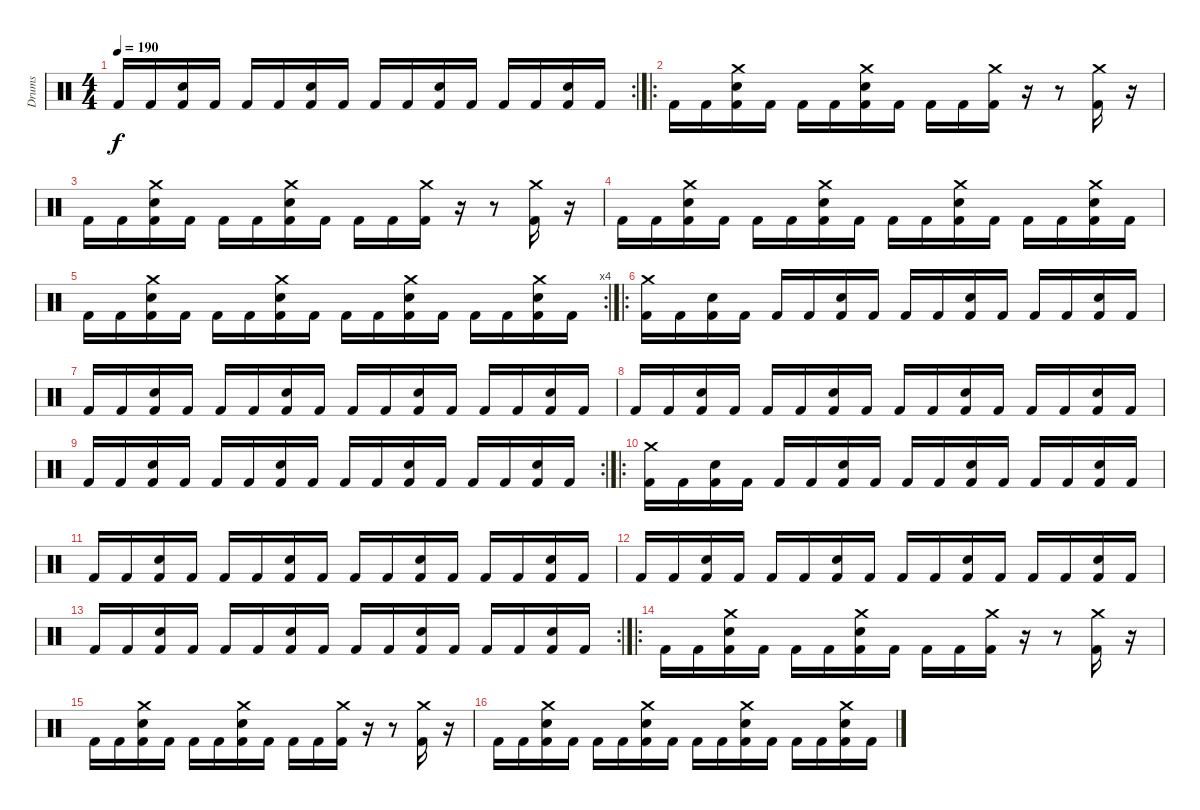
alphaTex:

\track ("Drums" "Drums") {instrument percussion}
\staff {score}
\articulation defaults
\rc 2
\ts (4 4)
\tempo 190
\clef neutral
\ks c "Kick (hit) 2".16{dy f} "Kick (hit) 2".16
("Electric Snare (hit)" "Kick (hit) 2").16 "Kick (hit) 2".16 "Kick (hit) 2".16 "Kick (hit) 2".16 ("Electric Snare (hit)" "Kick (hit) 2").16 "Kick (hit) 2".16 "Kick (hit) 2".16 "Kick (hit) 2".16 ("Electric Snare (hit)" "Kick (hit) 2").16 "Kick (hit) 2".16 "Kick (hit) 2".16 "Kick (hit) 2".16 ("Electric Snare (hit)" "Kick (hit) 2").16 "Kick (hit) 2".16 |
\ro "Kick (hit) 2".16 "Kick (hit) 2".16
("Crash medium (hit)" "Electric Snare (hit)" "Kick (hit) 2").16 "Kick (hit) 2".16 "Kick (hit) 2".16 "Kick (hit) 2".16 ("Crash medium (hit)" "Electric Snare (hit)" "Kick (hit) 2").16 "Kick (hit) 2".16 "Kick (hit) 2".16 "Kick (hit) 2".16 ("Crash medium (hit)" "Kick (hit) 2").16 r.16 r.8 ("Crash medium (hit)" "Kick (hit) 2").16 r.16 |
"Kick (hit) 2".16 "Kick (hit) 2".16 ("Crash medium (hit)" "Electric Snare (hit)" "Kick (hit) 2").16 "Kick (hit) 2".16 "Kick (hit) 2".16 "Kick (hit) 2".16 ("Crash medium (hit)" "Electric Snare (hit)" "Kick (hit) 2").16 "Kick (hit) 2".16 "Kick (hit) 2".16 "Kick (hit) 2".16 ("Crash medium (hit)" "Kick (hit) 2").16 r.16 r.8 ("Crash medium (hit)" "Kick (hit) 2").16 r.16 |
"Kick (hit) 2".16 "Kick (hit) 2".16 ("Crash medium (hit)" "Electric Snare (hit)" "Kick (hit) 2").16 "Kick (hit) 2".16 "Kick (hit) 2".16 "Kick (hit) 2".16 ("Crash medium (hit)" "Electric Snare (hit)" "Kick (hit) 2").16 "Kick (hit) 2".16 "Kick (hit) 2".16 "Kick (hit) 2".16 ("Crash medium (hit)" "Electric Snare (hit)" "Kick (hit) 2").16 "Kick (hit) 2".16 "Kick (hit) 2".16 "Kick (hit) 2".16 ("Crash medium (hit)" "Electric Snare (hit)" "Kick (hit) 2").16 "Kick (hit) 2".16 |
\rc 4 "Kick (hit) 2".16 "Kick (hit) 2".16
("Crash medium (hit)" "Electric Snare (hit)" "Kick (hit) 2").16 "Kick (hit) 2".16 "Kick (hit) 2".16 "Kick (hit) 2".16 ("Crash medium (hit)" "Electric Snare (hit)" "Kick (hit) 2").16 "Kick (hit) 2".16 "Kick (hit) 2".16 "Kick (hit) 2".16 ("Crash medium (hit)" "Electric Snare (hit)" "Kick (hit) 2").16 "Kick (hit) 2".16 "Kick (hit) 2".16 "Kick (hit) 2".16 ("Crash medium (hit)" "Electric Snare (hit)" "Kick (hit) 2").16 "Kick (hit) 2".16 |
\ro
("Crash medium (hit)" "Kick (hit) 2").16 "Kick (hit) 2".16 ("Electric Snare (hit)" "Kick (hit) 2").16 "Kick (hit) 2".16 "Kick (hit) 2".16 "Kick (hit) 2".16 ("Electric Snare (hit)" "Kick (hit) 2").16 "Kick (hit) 2".16 "Kick (hit) 2".16 "Kick (hit) 2".16 ("Electric Snare (hit)" "Kick (hit) 2").16 "Kick (hit) 2".16 "Kick (hit) 2".16 "Kick (hit) 2".16 ("Electric Snare (hit)" "Kick (hit) 2").16 "Kick (hit) 2".16 |
"Kick (hit) 2".16 "Kick (hit) 2".16 ("Electric Snare (hit)" "Kick (hit) 2").16 "Kick (hit) 2".16 "Kick (hit) 2".16 "Kick (hit) 2".16 ("Electric Snare (hit)" "Kick (hit) 2").16 "Kick (hit) 2".16 "Kick (hit) 2".16 "Kick (hit) 2".16 ("Electric Snare (hit)" "Kick (hit) 2").16 "Kick (hit) 2".16 "Kick (hit) 2".16 "Kick (hit) 2".16 ("Electric Snare (hit)" "Kick (hit) 2").16 "Kick (hit) 2".16 |
"Kick (hit) 2".16 "Kick (hit) 2".16 ("Electric Snare (hit)" "Kick (hit) 2").16 "Kick (hit) 2".16 "Kick (hit) 2".16 "Kick (hit) 2".16 ("Electric Snare (hit)" "Kick (hit) 2").16 "Kick (hit) 2".16 "Kick (hit) 2".16 "Kick (hit) 2".16 ("Electric Snare (hit)" "Kick (hit) 2").16 "Kick (hit) 2".16 "Kick (hit) 2".16 "Kick (hit) 2".16 ("Electric Snare (hit)" "Kick (hit) 2").16 "Kick (hit) 2".16 |
\rc 2 "Kick (hit) 2".16 "Kick (hit) 2".16
("Electric Snare (hit)" "Kick (hit) 2").16 "Kick (hit) 2".16 "Kick (hit) 2".16 "Kick (hit) 2".16 ("Electric Snare (hit)" "Kick (hit) 2").16 "Kick (hit) 2".16 "Kick (hit) 2".16 "Kick (hit) 2".16 ("Electric Snare (hit)" "Kick (hit) 2").16 "Kick (hit) 2".16 "Kick (hit) 2".16 "Kick (hit) 2".16 ("Electric Snare (hit)" "Kick (hit) 2").16 "Kick (hit) 2".16 |
\ro
("Crash medium (hit)" "Kick (hit) 2").16 "Kick (hit) 2".16 ("Electric Snare (hit)" "Kick (hit) 2").16 "Kick (hit) 2".16 "Kick (hit) 2".16 "Kick (hit) 2".16 ("Electric Snare (hit)" "Kick (hit) 2").16 "Kick (hit) 2".16 "Kick (hit) 2".16 "Kick (hit) 2".16 ("Electric Snare (hit)" "Kick (hit) 2").16 "Kick (hit) 2".16 "Kick (hit) 2".16 "Kick (hit) 2".16 ("Electric Snare (hit)" "Kick (hit) 2").16 "Kick (hit) 2".16 |
"Kick (hit) 2".16 "Kick (hit) 2".16 ("Electric Snare (hit)" "Kick (hit) 2").16 "Kick (hit) 2".16 "Kick (hit) 2".16 "Kick (hit) 2".16 ("Electric Snare (hit)" "Kick (hit) 2").16 "Kick (hit) 2".16 "Kick (hit) 2".16 "Kick (hit) 2".16 ("Electric Snare (hit)" "Kick (hit) 2").16 "Kick (hit) 2".16 "Kick (hit) 2".16 "Kick (hit) 2".16 ("Electric Snare (hit)" "Kick (hit) 2").16 "Kick (hit) 2".16 |
"Kick (hit) 2".16 "Kick (hit) 2".16 ("Electric Snare (hit)" "Kick (hit) 2").16 "Kick (hit) 2".16 "Kick (hit) 2".16 "Kick (hit) 2".16 ("Electric Snare (hit)" "Kick (hit) 2").16 "Kick (hit) 2".16 "Kick (hit) 2".16 "Kick (hit) 2".16 ("Electric Snare (hit)" "Kick (hit) 2").16 "Kick (hit) 2".16 "Kick (hit) 2".16 "Kick (hit) 2".16 ("Electric Snare (hit)" "Kick (hit) 2").16 "Kick (hit) 2".16 |
\rc 2 "Kick (hit) 2".16 "Kick (hit) 2".16
("Electric Snare (hit)" "Kick (hit) 2").16 "Kick (hit) 2".16 "Kick (hit) 2".16 "Kick (hit) 2".16 ("Electric Snare (hit)" "Kick (hit) 2").16 "Kick (hit) 2".16 "Kick (hit) 2".16 "Kick (hit) 2".16 ("Electric Snare (hit)" "Kick (hit) 2").16 "Kick (hit) 2".16 "Kick (hit) 2".16 "Kick (hit) 2".16 ("Electric Snare (hit)" "Kick (hit) 2").16 "Kick (hit) 2".16 |
\ro "Kick (hit) 2".16 "Kick (hit) 2".16
("Crash medium (hit)" "Electric Snare (hit)" "Kick (hit) 2").16 "Kick (hit) 2".16 "Kick (hit) 2".16 "Kick (hit) 2".16 ("Crash medium (hit)" "Electric Snare (hit)" "Kick (hit) 2").16 "Kick (hit) 2".16 "Kick (hit) 2".16 "Kick (hit) 2".16 ("Crash medium (hit)" "Kick (hit) 2").16 r.16 r.8 ("Crash medium (hit)" "Kick (hit) 2").16 r.16 |
"Kick (hit) 2".16 "Kick (hit) 2".16 ("Crash medium (hit)" "Electric Snare (hit)" "Kick (hit) 2").16 "Kick (hit) 2".16 "Kick (hit) 2".16 "Kick (hit) 2".16 ("Crash medium (hit)" "Electric Snare (hit)" "Kick (hit) 2").16 "Kick (hit) 2".16 "Kick (hit) 2".16 "Kick (hit) 2".16 ("Crash medium (hit)" "Kick (hit) 2").16 r.16 r.8 ("Crash medium (hit)" "Kick (hit) 2").16 r.16 |
"Kick (hit) 2".16 "Kick (hit) 2".16 ("Crash medium (hit)" "Electric Snare (hit)" "Kick (hit) 2").16 "Kick (hit) 2".16 "Kick (hit) 2".16 "Kick (hit) 2".16 ("Crash medium (hit)" "Electric Snare (hit)" "Kick (hit) 2").16 "Kick (hit) 2".16 "Kick (hit) 2".16 "Kick (hit) 2".16 ("Crash medium (hit)" "Electric Snare (hit)" "Kick (hit) 2").16 "Kick (hit) 2".16 "Kick (hit) 2".16 "Kick (hit) 2".16 ("Crash medium (hit)" "Electric Snare (hit)" "Kick (hit) 2").16 "Kick (hit) 2".16
